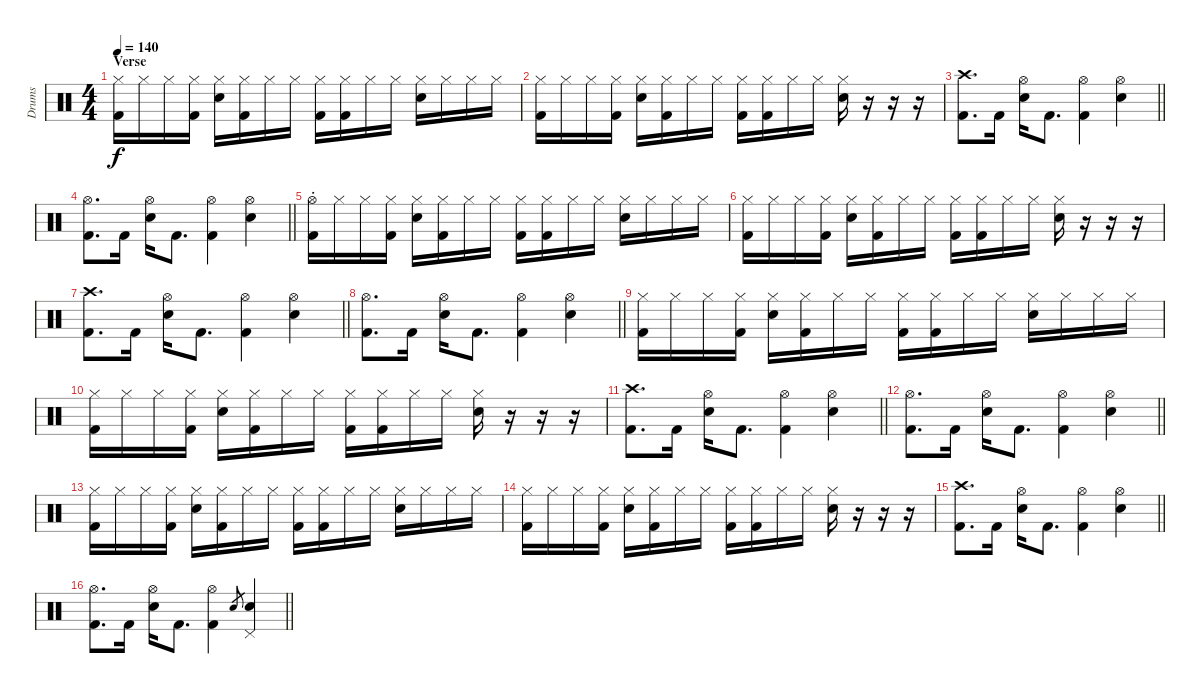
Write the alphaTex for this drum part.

\track ("Drums" "Drums") {instrument percussion}
\staff {score}
\articulation defaults
\ts (4 4)
\section ("" "Verse")
\tempo 140
\clef neutral
\ks c
("Hi-Hat (closed)" "Kick (hit) 2").16{dy f} "Hi-Hat (closed)".16 "Hi-Hat (closed)".16 ("Hi-Hat (closed)" "Kick (hit) 2").16 ("Hi-Hat (closed)" "Electric Snare (hit)").16 ("Hi-Hat (closed)" "Kick (hit) 2").16 "Hi-Hat (closed)".16 "Hi-Hat (closed)".16 ("Hi-Hat (closed)" "Kick (hit) 2").16 ("Hi-Hat (closed)" "Kick (hit) 2").16 "Hi-Hat (closed)".16 "Hi-Hat (closed)".16 ("Hi-Hat (closed)" "Electric Snare (hit)").16 "Hi-Hat (closed)".16 "Hi-Hat (closed)".16 "Hi-Hat (closed)".16 |
("Hi-Hat (closed)" "Kick (hit) 2").16 "Hi-Hat (closed)".16 "Hi-Hat (closed)".16 ("Hi-Hat (closed)" "Kick (hit) 2").16 ("Hi-Hat (closed)" "Electric Snare (hit)").16 ("Hi-Hat (closed)" "Kick (hit) 2").16 "Hi-Hat (closed)".16 "Hi-Hat (closed)".16 ("Hi-Hat (closed)" "Kick (hit) 2").16 ("Hi-Hat (closed)" "Kick (hit) 2").16 "Hi-Hat (closed)".16 "Hi-Hat (closed)".16 ("Hi-Hat (closed)" "Electric Snare (hit)").16 r.16 r.16 r.16 |
\barLineRight lightlight
("Crash high (hit)" "Kick (hit) 2").8{d} "Kick (hit) 2".16 ("Electric Snare (hit)" "Hi-Hat (open)").16 "Kick (hit) 2".8{d} ("Hi-Hat (open)" "Kick (hit) 2").4 ("Hi-Hat (open)" "Snare (hit) 2").4 |
\barLineRight lightlight
("Hi-Hat (open)" "Kick (hit) 2").8{d} "Kick (hit) 2".16 ("Electric Snare (hit)" "Hi-Hat (open)").16 "Kick (hit) 2".8{d} ("Hi-Hat (open)" "Kick (hit) 2").4 ("Hi-Hat (open)" "Snare (hit) 2").4 |
("Hi-Hat (open)"{st} "Kick (hit) 2").16 "Hi-Hat (closed)".16 "Hi-Hat (closed)".16 ("Hi-Hat (closed)" "Kick (hit) 2").16 ("Hi-Hat (closed)" "Electric Snare (hit)").16 ("Hi-Hat (closed)" "Kick (hit) 2").16 "Hi-Hat (closed)".16 "Hi-Hat (closed)".16 ("Hi-Hat (closed)" "Kick (hit) 2").16 ("Hi-Hat (closed)" "Kick (hit) 2").16 "Hi-Hat (closed)".16 "Hi-Hat (closed)".16 ("Hi-Hat (closed)" "Electric Snare (hit)").16 "Hi-Hat (closed)".16 "Hi-Hat (closed)".16 "Hi-Hat (closed)".16 |
("Hi-Hat (closed)" "Kick (hit) 2").16 "Hi-Hat (closed)".16 "Hi-Hat (closed)".16 ("Hi-Hat (closed)" "Kick (hit) 2").16 ("Hi-Hat (closed)" "Electric Snare (hit)").16 ("Hi-Hat (closed)" "Kick (hit) 2").16 "Hi-Hat (closed)".16 "Hi-Hat (closed)".16 ("Hi-Hat (closed)" "Kick (hit) 2").16 ("Hi-Hat (closed)" "Kick (hit) 2").16 "Hi-Hat (closed)".16 "Hi-Hat (closed)".16 ("Hi-Hat (closed)" "Electric Snare (hit)").16 r.16 r.16 r.16 |
\barLineRight lightlight
("Crash high (hit)" "Kick (hit) 2").8{d} "Kick (hit) 2".16 ("Electric Snare (hit)" "Hi-Hat (open)").16 "Kick (hit) 2".8{d} ("Hi-Hat (open)" "Kick (hit) 2").4 ("Hi-Hat (open)" "Snare (hit) 2").4 |
\barLineRight lightlight
("Hi-Hat (open)" "Kick (hit) 2").8{d} "Kick (hit) 2".16 ("Electric Snare (hit)" "Hi-Hat (open)").16 "Kick (hit) 2".8{d} ("Hi-Hat (open)" "Kick (hit) 2").4 ("Hi-Hat (open)" "Snare (hit) 2").4 |
("Hi-Hat (closed)" "Kick (hit) 2").16 "Hi-Hat (closed)".16 "Hi-Hat (closed)".16 ("Hi-Hat (closed)" "Kick (hit) 2").16 ("Hi-Hat (closed)" "Electric Snare (hit)").16 ("Hi-Hat (closed)" "Kick (hit) 2").16 "Hi-Hat (closed)".16 "Hi-Hat (closed)".16 ("Hi-Hat (closed)" "Kick (hit) 2").16 ("Hi-Hat (closed)" "Kick (hit) 2").16 "Hi-Hat (closed)".16 "Hi-Hat (closed)".16 ("Hi-Hat (closed)" "Electric Snare (hit)").16 "Hi-Hat (closed)".16 "Hi-Hat (closed)".16 "Hi-Hat (closed)".16 |
("Hi-Hat (closed)" "Kick (hit) 2").16 "Hi-Hat (closed)".16 "Hi-Hat (closed)".16 ("Hi-Hat (closed)" "Kick (hit) 2").16 ("Hi-Hat (closed)" "Electric Snare (hit)").16 ("Hi-Hat (closed)" "Kick (hit) 2").16 "Hi-Hat (closed)".16 "Hi-Hat (closed)".16 ("Hi-Hat (closed)" "Kick (hit) 2").16 ("Hi-Hat (closed)" "Kick (hit) 2").16 "Hi-Hat (closed)".16 "Hi-Hat (closed)".16 ("Hi-Hat (closed)" "Electric Snare (hit)").16 r.16 r.16 r.16 |
\barLineRight lightlight
("Crash high (hit)" "Kick (hit) 2").8{d} "Kick (hit) 2".16 ("Electric Snare (hit)" "Hi-Hat (open)").16 "Kick (hit) 2".8{d} ("Hi-Hat (open)" "Kick (hit) 2").4 ("Hi-Hat (open)" "Snare (hit) 2").4 |
\barLineRight lightlight
("Hi-Hat (open)" "Kick (hit) 2").8{d} "Kick (hit) 2".16 ("Electric Snare (hit)" "Hi-Hat (open)").16 "Kick (hit) 2".8{d} ("Hi-Hat (open)" "Kick (hit) 2").4 ("Hi-Hat (open)" "Snare (hit) 2").4 |
("Hi-Hat (closed)" "Kick (hit) 2").16 "Hi-Hat (closed)".16 "Hi-Hat (closed)".16 ("Hi-Hat (closed)" "Kick (hit) 2").16 ("Hi-Hat (closed)" "Electric Snare (hit)").16 ("Hi-Hat (closed)" "Kick (hit) 2").16 "Hi-Hat (closed)".16 "Hi-Hat (closed)".16 ("Hi-Hat (closed)" "Kick (hit) 2").16 ("Hi-Hat (closed)" "Kick (hit) 2").16 "Hi-Hat (closed)".16 "Hi-Hat (closed)".16 ("Hi-Hat (closed)" "Electric Snare (hit)").16 "Hi-Hat (closed)".16 "Hi-Hat (closed)".16 "Hi-Hat (closed)".16 |
("Hi-Hat (closed)" "Kick (hit) 2").16 "Hi-Hat (closed)".16 "Hi-Hat (closed)".16 ("Hi-Hat (closed)" "Kick (hit) 2").16 ("Hi-Hat (closed)" "Electric Snare (hit)").16 ("Hi-Hat (closed)" "Kick (hit) 2").16 "Hi-Hat (closed)".16 "Hi-Hat (closed)".16 ("Hi-Hat (closed)" "Kick (hit) 2").16 ("Hi-Hat (closed)" "Kick (hit) 2").16 "Hi-Hat (closed)".16 "Hi-Hat (closed)".16 ("Hi-Hat (closed)" "Electric Snare (hit)").16 r.16 r.16 r.16 |
\barLineRight lightlight
("Crash high (hit)" "Kick (hit) 2").8{d} "Kick (hit) 2".16 ("Electric Snare (hit)" "Hi-Hat (open)").16 "Kick (hit) 2".8{d} ("Hi-Hat (open)" "Kick (hit) 2").4 ("Hi-Hat (open)" "Snare (hit) 2").4 |
\barLineRight lightlight
("Hi-Hat (open)" "Kick (hit) 2").8{d} "Kick (hit) 2".16 ("Electric Snare (hit)" "Hi-Hat (open)").16 "Kick (hit) 2".8{d} ("Hi-Hat (open)" "Kick (hit) 2").4 "Snare (hit) 2".8{gr} ("Pedal Hi-Hat (hit)" "Snare (hit) 2").4
